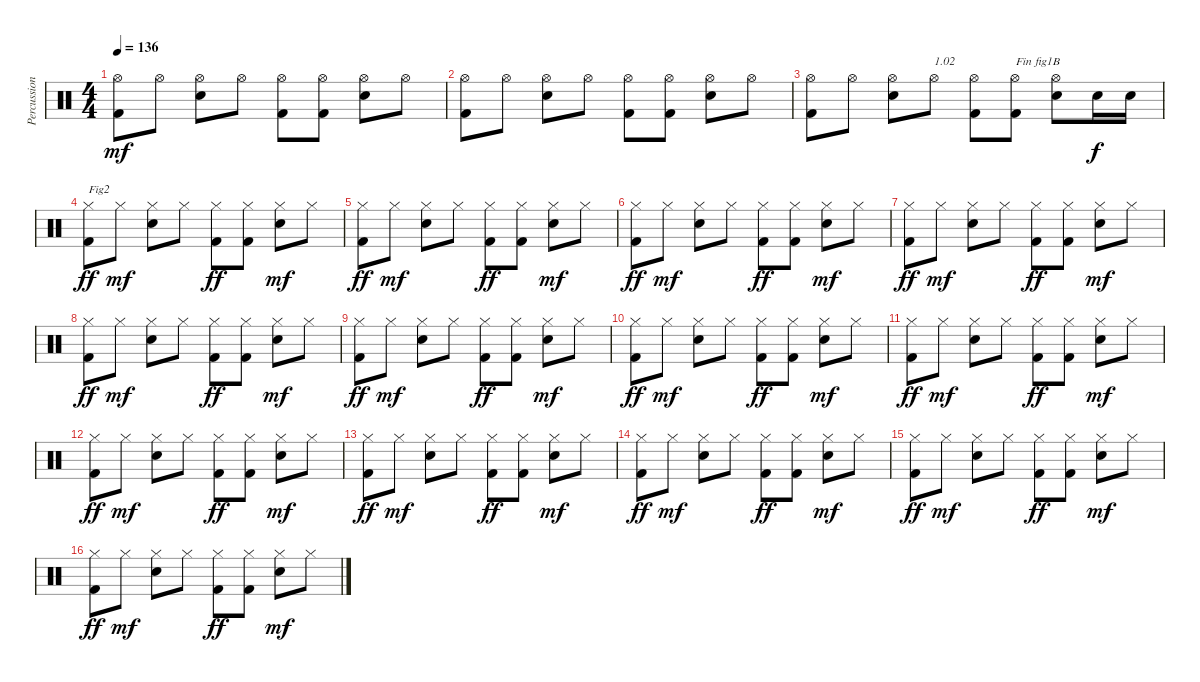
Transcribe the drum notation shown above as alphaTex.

\track ("Percussions" "Percussion") {instrument percussion}
\staff {score}
\articulation defaults
\ts (4 4)
\tempo 136
\clef neutral
\ks c
("Kick (hit) 2" "Hi-Hat (open)").8{dy mf} "Hi-Hat (open)".8 ("Electric Snare (hit)" "Hi-Hat (open)").8 "Hi-Hat (open)".8 ("Kick (hit) 2" "Hi-Hat (open)").8 ("Kick (hit) 2" "Hi-Hat (open)").8 ("Electric Snare (hit)" "Hi-Hat (open)").8 "Hi-Hat (open)".8 |
("Kick (hit) 2" "Hi-Hat (open)").8 "Hi-Hat (open)".8 ("Electric Snare (hit)" "Hi-Hat (open)").8 "Hi-Hat (open)".8 ("Kick (hit) 2" "Hi-Hat (open)").8 ("Kick (hit) 2" "Hi-Hat (open)").8 ("Electric Snare (hit)" "Hi-Hat (open)").8 "Hi-Hat (open)".8 |
("Kick (hit) 2" "Hi-Hat (open)").8 "Hi-Hat (open)".8 ("Electric Snare (hit)" "Hi-Hat (open)").8 "Hi-Hat (open)".8{txt "1.02"} ("Kick (hit) 2" "Hi-Hat (open)").8 ("Kick (hit) 2" "Hi-Hat (open)").8{txt "Fin fig1B"} ("Electric Snare (hit)" "Hi-Hat (open)").8 "Electric Snare (hit)".16{dy f} "Electric Snare (hit)".16 |
("Kick (hit) 2" "Hi-Hat (closed)").8{txt "Fig2" dy ff} "Hi-Hat (closed)".8{dy mf} ("Electric Snare (hit)" "Hi-Hat (closed)").8 "Hi-Hat (closed)".8 ("Kick (hit) 2" "Hi-Hat (closed)").8{dy ff} ("Kick (hit) 2" "Hi-Hat (closed)").8 ("Electric Snare (hit)" "Hi-Hat (closed)").8{dy mf} "Hi-Hat (closed)".8 |
("Kick (hit) 2" "Hi-Hat (closed)").8{dy ff} "Hi-Hat (closed)".8{dy mf} ("Electric Snare (hit)" "Hi-Hat (closed)").8 "Hi-Hat (closed)".8 ("Kick (hit) 2" "Hi-Hat (closed)").8{dy ff} ("Kick (hit) 2" "Hi-Hat (closed)").8 ("Electric Snare (hit)" "Hi-Hat (closed)").8{dy mf} "Hi-Hat (closed)".8 |
("Kick (hit) 2" "Hi-Hat (closed)").8{dy ff} "Hi-Hat (closed)".8{dy mf} ("Electric Snare (hit)" "Hi-Hat (closed)").8 "Hi-Hat (closed)".8 ("Kick (hit) 2" "Hi-Hat (closed)").8{dy ff} ("Kick (hit) 2" "Hi-Hat (closed)").8 ("Electric Snare (hit)" "Hi-Hat (closed)").8{dy mf} "Hi-Hat (closed)".8 |
("Kick (hit) 2" "Hi-Hat (closed)").8{dy ff} "Hi-Hat (closed)".8{dy mf} ("Electric Snare (hit)" "Hi-Hat (closed)").8 "Hi-Hat (closed)".8 ("Kick (hit) 2" "Hi-Hat (closed)").8{dy ff} ("Kick (hit) 2" "Hi-Hat (closed)").8 ("Electric Snare (hit)" "Hi-Hat (closed)").8{dy mf} "Hi-Hat (closed)".8 |
("Kick (hit) 2" "Hi-Hat (closed)").8{dy ff} "Hi-Hat (closed)".8{dy mf} ("Electric Snare (hit)" "Hi-Hat (closed)").8 "Hi-Hat (closed)".8 ("Kick (hit) 2" "Hi-Hat (closed)").8{dy ff} ("Kick (hit) 2" "Hi-Hat (closed)").8 ("Electric Snare (hit)" "Hi-Hat (closed)").8{dy mf} "Hi-Hat (closed)".8 |
("Kick (hit) 2" "Hi-Hat (closed)").8{dy ff} "Hi-Hat (closed)".8{dy mf} ("Electric Snare (hit)" "Hi-Hat (closed)").8 "Hi-Hat (closed)".8 ("Kick (hit) 2" "Hi-Hat (closed)").8{dy ff} ("Kick (hit) 2" "Hi-Hat (closed)").8 ("Electric Snare (hit)" "Hi-Hat (closed)").8{dy mf} "Hi-Hat (closed)".8 |
("Kick (hit) 2" "Hi-Hat (closed)").8{dy ff} "Hi-Hat (closed)".8{dy mf} ("Electric Snare (hit)" "Hi-Hat (closed)").8 "Hi-Hat (closed)".8 ("Kick (hit) 2" "Hi-Hat (closed)").8{dy ff} ("Kick (hit) 2" "Hi-Hat (closed)").8 ("Electric Snare (hit)" "Hi-Hat (closed)").8{dy mf} "Hi-Hat (closed)".8 |
("Kick (hit) 2" "Hi-Hat (closed)").8{dy ff} "Hi-Hat (closed)".8{dy mf} ("Electric Snare (hit)" "Hi-Hat (closed)").8 "Hi-Hat (closed)".8 ("Kick (hit) 2" "Hi-Hat (closed)").8{dy ff} ("Kick (hit) 2" "Hi-Hat (closed)").8 ("Electric Snare (hit)" "Hi-Hat (closed)").8{dy mf} "Hi-Hat (closed)".8 |
("Kick (hit) 2" "Hi-Hat (closed)").8{dy ff} "Hi-Hat (closed)".8{dy mf} ("Electric Snare (hit)" "Hi-Hat (closed)").8 "Hi-Hat (closed)".8 ("Kick (hit) 2" "Hi-Hat (closed)").8{dy ff} ("Kick (hit) 2" "Hi-Hat (closed)").8 ("Electric Snare (hit)" "Hi-Hat (closed)").8{dy mf} "Hi-Hat (closed)".8 |
("Kick (hit) 2" "Hi-Hat (closed)").8{dy ff} "Hi-Hat (closed)".8{dy mf} ("Electric Snare (hit)" "Hi-Hat (closed)").8 "Hi-Hat (closed)".8 ("Kick (hit) 2" "Hi-Hat (closed)").8{dy ff} ("Kick (hit) 2" "Hi-Hat (closed)").8 ("Electric Snare (hit)" "Hi-Hat (closed)").8{dy mf} "Hi-Hat (closed)".8 |
("Kick (hit) 2" "Hi-Hat (closed)").8{dy ff} "Hi-Hat (closed)".8{dy mf} ("Electric Snare (hit)" "Hi-Hat (closed)").8 "Hi-Hat (closed)".8 ("Kick (hit) 2" "Hi-Hat (closed)").8{dy ff} ("Kick (hit) 2" "Hi-Hat (closed)").8 ("Electric Snare (hit)" "Hi-Hat (closed)").8{dy mf} "Hi-Hat (closed)".8 |
("Kick (hit) 2" "Hi-Hat (closed)").8{dy ff} "Hi-Hat (closed)".8{dy mf} ("Electric Snare (hit)" "Hi-Hat (closed)").8 "Hi-Hat (closed)".8 ("Kick (hit) 2" "Hi-Hat (closed)").8{dy ff} ("Kick (hit) 2" "Hi-Hat (closed)").8 ("Electric Snare (hit)" "Hi-Hat (closed)").8{dy mf} "Hi-Hat (closed)".8 |
("Kick (hit) 2" "Hi-Hat (closed)").8{dy ff} "Hi-Hat (closed)".8{dy mf} ("Electric Snare (hit)" "Hi-Hat (closed)").8 "Hi-Hat (closed)".8 ("Kick (hit) 2" "Hi-Hat (closed)").8{dy ff} ("Kick (hit) 2" "Hi-Hat (closed)").8 ("Electric Snare (hit)" "Hi-Hat (closed)").8{dy mf} "Hi-Hat (closed)".8
